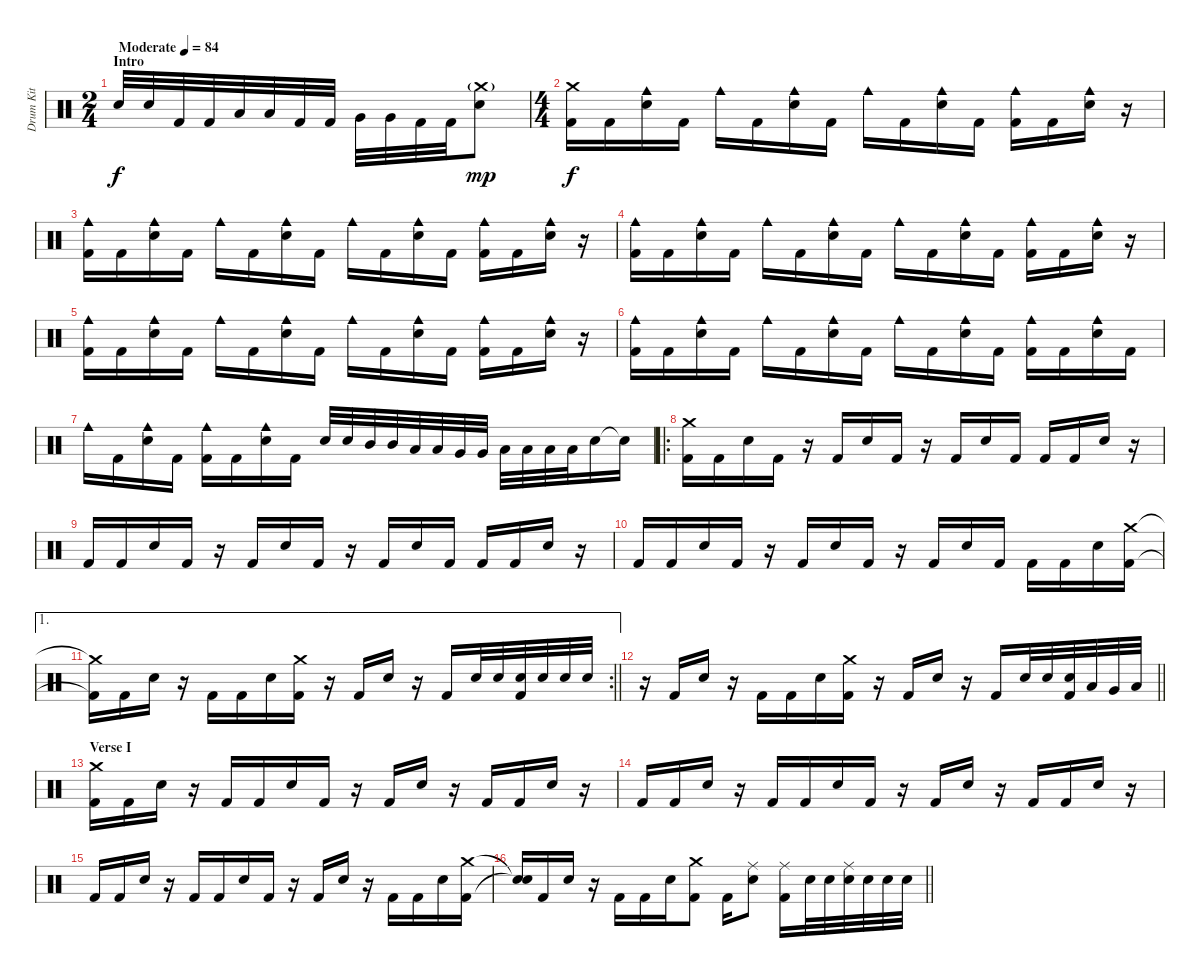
\track ("Drum Kit" "Drum Kit") {instrument percussion}
\staff {score}
\articulation defaults
\ts (2 4)
\section ("" "Intro")
\tempo (84 "Moderate")
\clef neutral
\ks c "Electric Snare (hit)".32{dy f} "Electric Snare (hit)".32 "Kick (hit) 2".32 "Kick (hit) 2".32 "Low Tom (hit)".32 "Low Tom (hit)".32 "Kick (hit) 2".32 "Kick (hit) 2".32 "Very Low Tom (hit)".32 "Very Low Tom (hit)".32 "Kick (hit) 2".32 "Kick (hit) 2".32
("Crash medium (hit)"{g} "Electric Snare (hit)").8{dy mp} |
\ts (4 4)
("Crash medium (hit)" "Kick (hit) 2").16{dy f} "Kick (hit) 2".16 ("Cowbell medium (hit)" "Electric Snare (hit)").16 "Kick (hit) 2".16 "Cowbell medium (hit)".16 "Kick (hit) 2".16 ("Cowbell medium (hit)" "Electric Snare (hit)").16 "Kick (hit) 2".16 "Cowbell medium (hit)".16 "Kick (hit) 2".16 ("Cowbell medium (hit)" "Electric Snare (hit)").16 "Kick (hit) 2".16 ("Cowbell medium (hit)" "Kick (hit) 2").16 "Kick (hit) 2".16 ("Cowbell medium (hit)" "Electric Snare (hit)").16 r.16 |
("Cowbell medium (hit)" "Kick (hit) 2").16 "Kick (hit) 2".16 ("Cowbell medium (hit)" "Electric Snare (hit)").16 "Kick (hit) 2".16 "Cowbell medium (hit)".16 "Kick (hit) 2".16 ("Cowbell medium (hit)" "Electric Snare (hit)").16 "Kick (hit) 2".16 "Cowbell medium (hit)".16 "Kick (hit) 2".16 ("Cowbell medium (hit)" "Electric Snare (hit)").16 "Kick (hit) 2".16 ("Cowbell medium (hit)" "Kick (hit) 2").16 "Kick (hit) 2".16 ("Cowbell medium (hit)" "Electric Snare (hit)").16 r.16 |
("Cowbell medium (hit)" "Kick (hit) 2").16 "Kick (hit) 2".16 ("Cowbell medium (hit)" "Electric Snare (hit)").16 "Kick (hit) 2".16 "Cowbell medium (hit)".16 "Kick (hit) 2".16 ("Cowbell medium (hit)" "Electric Snare (hit)").16 "Kick (hit) 2".16 "Cowbell medium (hit)".16 "Kick (hit) 2".16 ("Cowbell medium (hit)" "Electric Snare (hit)").16 "Kick (hit) 2".16 ("Cowbell medium (hit)" "Kick (hit) 2").16 "Kick (hit) 2".16 ("Cowbell medium (hit)" "Electric Snare (hit)").16 r.16 |
("Cowbell medium (hit)" "Kick (hit) 2").16 "Kick (hit) 2".16 ("Cowbell medium (hit)" "Electric Snare (hit)").16 "Kick (hit) 2".16 "Cowbell medium (hit)".16 "Kick (hit) 2".16 ("Cowbell medium (hit)" "Electric Snare (hit)").16 "Kick (hit) 2".16 "Cowbell medium (hit)".16 "Kick (hit) 2".16 ("Cowbell medium (hit)" "Electric Snare (hit)").16 "Kick (hit) 2".16 ("Cowbell medium (hit)" "Kick (hit) 2").16 "Kick (hit) 2".16 ("Cowbell medium (hit)" "Electric Snare (hit)").16 r.16 |
("Cowbell medium (hit)" "Kick (hit) 2").16 "Kick (hit) 2".16 ("Cowbell medium (hit)" "Electric Snare (hit)").16 "Kick (hit) 2".16 "Cowbell medium (hit)".16 "Kick (hit) 2".16 ("Cowbell medium (hit)" "Electric Snare (hit)").16 "Kick (hit) 2".16 "Cowbell medium (hit)".16 "Kick (hit) 2".16 ("Cowbell medium (hit)" "Electric Snare (hit)").16 "Kick (hit) 2".16 ("Cowbell medium (hit)" "Kick (hit) 2").16 "Kick (hit) 2".16 ("Cowbell medium (hit)" "Electric Snare (hit)").16 "Kick (hit) 2".16 |
"Cowbell medium (hit)".16 "Kick (hit) 2".16 ("Cowbell medium (hit)" "Electric Snare (hit)").16 "Kick (hit) 2".16 ("Cowbell medium (hit)" "Kick (hit) 2").16 "Kick (hit) 2".16 ("Cowbell medium (hit)" "Electric Snare (hit)").16 "Kick (hit) 2".16 "Electric Snare (hit)".32 "Electric Snare (hit)".32 "Mid Tom (hit)".32 "Mid Tom (hit)".32 "Low Tom (hit)".32 "Low Tom (hit)".32 "Very Low Tom (hit)".32 "Very Low Tom (hit)".32 "Low Floor Tom (hit)".32 "Low Floor Tom (hit)".32 "Low Floor Tom (hit)".32 "Low Floor Tom (hit)".32 "Electric Snare (hit)".16 "Snare (hit)"{t}.16 |
\ro
("Crash medium (hit)" "Kick (hit) 2").16 "Kick (hit) 2".16 "Electric Snare (hit)".16 "Kick (hit) 2".16 r.16 "Kick (hit) 2".16 "Electric Snare (hit)".16 "Kick (hit) 2".16 r.16 "Kick (hit) 2".16 "Electric Snare (hit)".16 "Kick (hit) 2".16 "Kick (hit) 2".16 "Kick (hit) 2".16 "Electric Snare (hit)".16 r.16 |
"Kick (hit) 2".16 "Kick (hit) 2".16 "Electric Snare (hit)".16 "Kick (hit) 2".16 r.16 "Kick (hit) 2".16 "Electric Snare (hit)".16 "Kick (hit) 2".16 r.16 "Kick (hit) 2".16 "Electric Snare (hit)".16 "Kick (hit) 2".16 "Kick (hit) 2".16 "Kick (hit) 2".16 "Electric Snare (hit)".16 r.16 |
"Kick (hit) 2".16 "Kick (hit) 2".16 "Electric Snare (hit)".16 "Kick (hit) 2".16 r.16 "Kick (hit) 2".16 "Electric Snare (hit)".16 "Kick (hit) 2".16 r.16 "Kick (hit) 2".16 "Electric Snare (hit)".16 "Kick (hit) 2".16 "Kick (hit) 2".16 "Kick (hit) 2".16 "Electric Snare (hit)".16 ("Crash medium (hit)" "Kick (hit) 2").16 |
\ae 1
\rc 2
\barLineRight lightlight
("Crash medium (hit)"{t} "Kick (hit) 2"{t}).16 "Kick (hit) 2".16 "Electric Snare (hit)".16 r.16 "Kick (hit) 2".16 "Kick (hit) 2".16 "Electric Snare (hit)".16 ("Crash medium (hit)" "Kick (hit) 2").16 r.16 "Kick (hit) 2".16 "Electric Snare (hit)".16 r.16 "Kick (hit) 2".16 "Electric Snare (hit)".32 "Electric Snare (hit)".32 ("Electric Snare (hit)" "Kick (hit) 2").32 "Electric Snare (hit)".32 "Electric Snare (hit)".32 "Electric Snare (hit)".32 |
\barLineRight lightlight
r.16 "Kick (hit) 2".16 "Electric Snare (hit)".16 r.16 "Kick (hit) 2".16 "Kick (hit) 2".16 "Electric Snare (hit)".16 ("Crash medium (hit)" "Kick (hit) 2").16 r.16 "Kick (hit) 2".16 "Electric Snare (hit)".16 r.16 "Kick (hit) 2".16 "Electric Snare (hit)".32 "Electric Snare (hit)".32 ("Electric Snare (hit)" "Kick (hit) 2").32 "Low Tom (hit)".32 "Very Low Tom (hit)".32 "Low Floor Tom (hit)".32 |
\section ("" "Verse I")
("Crash medium (hit)" "Kick (hit) 2").16 "Kick (hit) 2".16 "Electric Snare (hit)".16 r.16 "Kick (hit) 2".16 "Kick (hit) 2".16 "Electric Snare (hit)".16 "Kick (hit) 2".16 r.16 "Kick (hit) 2".16 "Electric Snare (hit)".16 r.16 "Kick (hit) 2".16 "Kick (hit) 2".16 "Electric Snare (hit)".16 r.16 |
"Kick (hit) 2".16 "Kick (hit) 2".16 "Electric Snare (hit)".16 r.16 "Kick (hit) 2".16 "Kick (hit) 2".16 "Electric Snare (hit)".16 "Kick (hit) 2".16 r.16 "Kick (hit) 2".16 "Electric Snare (hit)".16 r.16 "Kick (hit) 2".16 "Kick (hit) 2".16 "Electric Snare (hit)".16 r.16 |
"Kick (hit) 2".16 "Kick (hit) 2".16 "Electric Snare (hit)".16 r.16 "Kick (hit) 2".16 "Kick (hit) 2".16 "Electric Snare (hit)".16 "Kick (hit) 2".16 r.16 "Kick (hit) 2".16 "Electric Snare (hit)".16 r.16 "Kick (hit) 2".16 "Kick (hit) 2".16 "Electric Snare (hit)".16 ("Crash medium (hit)" "Kick (hit) 2").16 |
\barLineRight lightlight
("Snare (hit)"{t} "Snare (hit)"{t}).16 "Kick (hit) 2".16 "Electric Snare (hit)".16 r.16 "Kick (hit) 2".16 "Kick (hit) 2".16 "Electric Snare (hit)".16 ("Crash medium (hit)" "Kick (hit) 2").8 "Kick (hit) 2".16 ("Ride (middle)" "Electric Snare (hit)").8 ("Ride (middle)" "Kick (hit) 2").16 "Electric Snare (hit)".32 "Electric Snare (hit)".32 ("Ride (middle)" "Electric Snare (hit)").32 "Electric Snare (hit)".32 "Electric Snare (hit)".32 "Electric Snare (hit)".32
